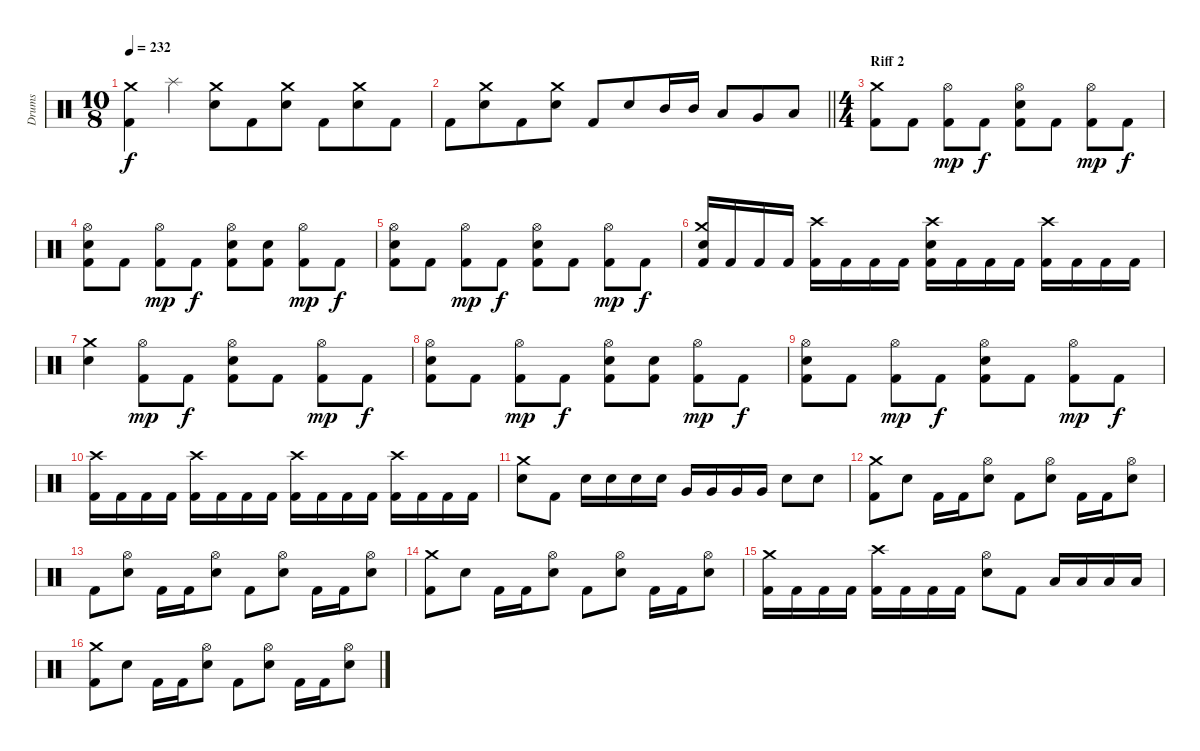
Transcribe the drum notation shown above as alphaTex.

\track ("Drums" "Drums") {instrument percussion}
\staff {score}
\articulation defaults
\ts (10 8)
\tempo 232
\clef neutral
\ks c
("Kick (hit) 2" "Crash medium (hit)").4{dy f} "Splash (hit)".4 ("Crash medium (hit)" "Electric Snare (hit)").8 "Kick (hit) 2".8 ("Crash medium (hit)" "Electric Snare (hit)").8 "Kick (hit) 2".8 ("Crash medium (hit)" "Electric Snare (hit)").8 "Kick (hit) 2".8 |
\barLineRight lightlight "Kick (hit) 2".8
("Crash medium (hit)" "Electric Snare (hit)").8 "Kick (hit) 2".8 ("Crash medium (hit)" "Electric Snare (hit)").8 "Kick (hit) 2".8 "Electric Snare (hit)".8 "Mid Tom (hit)".16 "Mid Tom (hit)".16 "Low Tom (hit)".8 "Very Low Tom (hit)".8 "Low Floor Tom (hit)".8 |
\ts (4 4)
\section ("" "Riff 2")
("Crash medium (hit)" "Kick (hit) 2").8 "Kick (hit) 2".8 ("Hi-Hat (open)" "Kick (hit) 2").8{dy mp} "Kick (hit) 2".8{dy f} ("Electric Snare (hit)" "Kick (hit) 2" "Hi-Hat (open)").8 "Kick (hit) 2".8 ("Hi-Hat (open)" "Kick (hit) 2").8{dy mp} "Kick (hit) 2".8{dy f} |
("Electric Snare (hit)" "Hi-Hat (open)" "Kick (hit) 2").8 "Kick (hit) 2".8 ("Hi-Hat (open)" "Kick (hit) 2").8{dy mp} "Kick (hit) 2".8{dy f} ("Electric Snare (hit)" "Kick (hit) 2" "Hi-Hat (open)").8 ("Electric Snare (hit)" "Kick (hit) 2").8 ("Hi-Hat (open)" "Kick (hit) 2").8{dy mp} "Kick (hit) 2".8{dy f} |
("Electric Snare (hit)" "Hi-Hat (open)" "Kick (hit) 2").8 "Kick (hit) 2".8 ("Hi-Hat (open)" "Kick (hit) 2").8{dy mp} "Kick (hit) 2".8{dy f} ("Electric Snare (hit)" "Kick (hit) 2" "Hi-Hat (open)").8 "Kick (hit) 2".8 ("Hi-Hat (open)" "Kick (hit) 2").8{dy mp} "Kick (hit) 2".8{dy f} |
("Electric Snare (hit)" "Kick (hit) 2" "Crash medium (hit)").16 "Kick (hit) 2".16 "Kick (hit) 2".16 "Kick (hit) 2".16 ("Crash high (hit)" "Kick (hit) 2").16 "Kick (hit) 2".16 "Kick (hit) 2".16 "Kick (hit) 2".16 ("Crash high (hit)" "Kick (hit) 2" "Electric Snare (hit)").16 "Kick (hit) 2".16 "Kick (hit) 2".16 "Kick (hit) 2".16 ("Crash high (hit)" "Kick (hit) 2").16 "Kick (hit) 2".16 "Kick (hit) 2".16 "Kick (hit) 2".16 |
("Electric Snare (hit)" "Crash medium (hit)").4 ("Hi-Hat (open)" "Kick (hit) 2").8{dy mp} "Kick (hit) 2".8{dy f} ("Electric Snare (hit)" "Kick (hit) 2" "Hi-Hat (open)").8 "Kick (hit) 2".8 ("Hi-Hat (open)" "Kick (hit) 2").8{dy mp} "Kick (hit) 2".8{dy f} |
("Electric Snare (hit)" "Hi-Hat (open)" "Kick (hit) 2").8 "Kick (hit) 2".8 ("Hi-Hat (open)" "Kick (hit) 2").8{dy mp} "Kick (hit) 2".8{dy f} ("Electric Snare (hit)" "Kick (hit) 2" "Hi-Hat (open)").8 ("Electric Snare (hit)" "Kick (hit) 2").8 ("Hi-Hat (open)" "Kick (hit) 2").8{dy mp} "Kick (hit) 2".8{dy f} |
("Electric Snare (hit)" "Hi-Hat (open)" "Kick (hit) 2").8 "Kick (hit) 2".8 ("Hi-Hat (open)" "Kick (hit) 2").8{dy mp} "Kick (hit) 2".8{dy f} ("Electric Snare (hit)" "Kick (hit) 2" "Hi-Hat (open)").8 "Kick (hit) 2".8 ("Hi-Hat (open)" "Kick (hit) 2").8{dy mp} "Kick (hit) 2".8{dy f} |
("Crash high (hit)" "Kick (hit) 2").16 "Kick (hit) 2".16 "Kick (hit) 2".16 "Kick (hit) 2".16 ("Crash high (hit)" "Kick (hit) 2").16 "Kick (hit) 2".16 "Kick (hit) 2".16 "Kick (hit) 2".16 ("Crash high (hit)" "Kick (hit) 2").16 "Kick (hit) 2".16 "Kick (hit) 2".16 "Kick (hit) 2".16 ("Crash high (hit)" "Kick (hit) 2").16 "Kick (hit) 2".16 "Kick (hit) 2".16 "Kick (hit) 2".16 |
("Electric Snare (hit)" "Crash medium (hit)").8 "Kick (hit) 2".8 "Electric Snare (hit)".16 "Electric Snare (hit)".16 "Electric Snare (hit)".16 "Electric Snare (hit)".16 "Very Low Tom (hit)".16 "Very Low Tom (hit)".16 "Very Low Tom (hit)".16 "Very Low Tom (hit)".16 "Electric Snare (hit)".8 "Electric Snare (hit)".8 |
("Kick (hit) 2" "Crash medium (hit)").8 "Electric Snare (hit)".8 "Kick (hit) 2".16 "Kick (hit) 2".16 ("Hi-Hat (open)" "Electric Snare (hit)").8 "Kick (hit) 2".8 ("Hi-Hat (open)" "Electric Snare (hit)").8 "Kick (hit) 2".16 "Kick (hit) 2".16 ("Hi-Hat (open)" "Electric Snare (hit)").8 |
"Kick (hit) 2".8 ("Hi-Hat (open)" "Electric Snare (hit)").8 "Kick (hit) 2".16 "Kick (hit) 2".16 ("Hi-Hat (open)" "Electric Snare (hit)").8 "Kick (hit) 2".8 ("Hi-Hat (open)" "Electric Snare (hit)").8 "Kick (hit) 2".16 "Kick (hit) 2".16 ("Hi-Hat (open)" "Electric Snare (hit)").8 |
("Kick (hit) 2" "Crash medium (hit)").8 "Electric Snare (hit)".8 "Kick (hit) 2".16 "Kick (hit) 2".16 ("Hi-Hat (open)" "Electric Snare (hit)").8 "Kick (hit) 2".8 ("Hi-Hat (open)" "Electric Snare (hit)").8 "Kick (hit) 2".16 "Kick (hit) 2".16 ("Hi-Hat (open)" "Electric Snare (hit)").8 |
("Kick (hit) 2" "Crash medium (hit)").16 "Kick (hit) 2".16 "Kick (hit) 2".16 "Kick (hit) 2".16 ("Crash high (hit)" "Kick (hit) 2").16 "Kick (hit) 2".16 "Kick (hit) 2".16 "Kick (hit) 2".16 ("Electric Snare (hit)" "Hi-Hat (open)").8 "Kick (hit) 2".8 "Low Tom (hit)".16 "Low Tom (hit)".16 "Low Tom (hit)".16 "Low Tom (hit)".16 |
("Kick (hit) 2" "Crash medium (hit)").8 "Electric Snare (hit)".8 "Kick (hit) 2".16 "Kick (hit) 2".16 ("Hi-Hat (open)" "Electric Snare (hit)").8 "Kick (hit) 2".8 ("Hi-Hat (open)" "Electric Snare (hit)").8 "Kick (hit) 2".16 "Kick (hit) 2".16 ("Hi-Hat (open)" "Electric Snare (hit)").8
